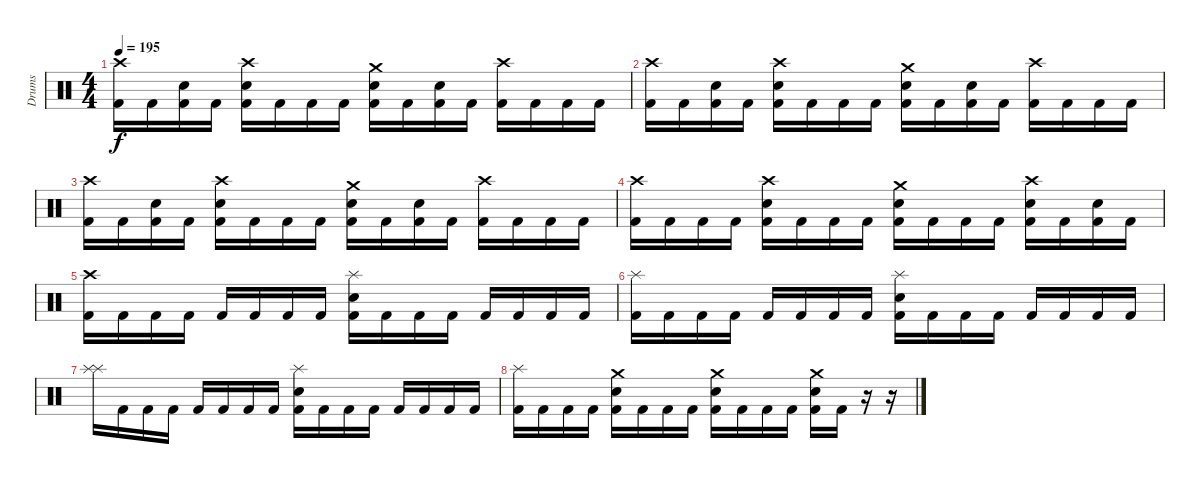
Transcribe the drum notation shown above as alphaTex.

\track ("Drums" "Drums") {instrument percussion}
\staff {score}
\articulation defaults
\ts (4 4)
\tempo 195
\clef neutral
\ks c
("Crash high (hit)" "Kick (hit) 2").16{dy f} "Kick (hit) 2".16 ("Kick (hit) 2" "Electric Snare (hit)").16 "Kick (hit) 2".16 ("Crash high (hit)" "Kick (hit) 2" "Electric Snare (hit)").16 "Kick (hit) 2".16 "Kick (hit) 2".16 "Kick (hit) 2".16 ("Crash medium (hit)" "Kick (hit) 2" "Electric Snare (hit)").16 "Kick (hit) 2".16 ("Kick (hit) 2" "Electric Snare (hit)").16 "Kick (hit) 2".16 ("Crash high (hit)" "Kick (hit) 2").16 "Kick (hit) 2".16 "Kick (hit) 2".16 "Kick (hit) 2".16 |
("Crash high (hit)" "Kick (hit) 2").16 "Kick (hit) 2".16 ("Kick (hit) 2" "Electric Snare (hit)").16 "Kick (hit) 2".16 ("Crash high (hit)" "Kick (hit) 2" "Electric Snare (hit)").16 "Kick (hit) 2".16 "Kick (hit) 2".16 "Kick (hit) 2".16 ("Crash medium (hit)" "Kick (hit) 2" "Electric Snare (hit)").16 "Kick (hit) 2".16 ("Kick (hit) 2" "Electric Snare (hit)").16 "Kick (hit) 2".16 ("Crash high (hit)" "Kick (hit) 2").16 "Kick (hit) 2".16 "Kick (hit) 2".16 "Kick (hit) 2".16 |
("Crash high (hit)" "Kick (hit) 2").16 "Kick (hit) 2".16 ("Kick (hit) 2" "Electric Snare (hit)").16 "Kick (hit) 2".16 ("Crash high (hit)" "Kick (hit) 2" "Electric Snare (hit)").16 "Kick (hit) 2".16 "Kick (hit) 2".16 "Kick (hit) 2".16 ("Crash medium (hit)" "Kick (hit) 2" "Electric Snare (hit)").16 "Kick (hit) 2".16 ("Kick (hit) 2" "Electric Snare (hit)").16 "Kick (hit) 2".16 ("Crash high (hit)" "Kick (hit) 2").16 "Kick (hit) 2".16 "Kick (hit) 2".16 "Kick (hit) 2".16 |
("Crash high (hit)" "Kick (hit) 2").16 "Kick (hit) 2".16 "Kick (hit) 2".16 "Kick (hit) 2".16 ("Crash high (hit)" "Kick (hit) 2" "Electric Snare (hit)").16 "Kick (hit) 2".16 "Kick (hit) 2".16 "Kick (hit) 2".16 ("Crash medium (hit)" "Kick (hit) 2" "Electric Snare (hit)").16 "Kick (hit) 2".16 "Kick (hit) 2".16 "Kick (hit) 2".16 ("Crash high (hit)" "Kick (hit) 2" "Electric Snare (hit)").16 "Kick (hit) 2".16 ("Kick (hit) 2" "Electric Snare (hit)").16 "Kick (hit) 2".16 |
("Crash high (hit)" "Kick (hit) 2").16 "Kick (hit) 2".16 "Kick (hit) 2".16 "Kick (hit) 2".16 "Kick (hit) 2".16 "Kick (hit) 2".16 "Kick (hit) 2".16 "Kick (hit) 2".16 ("Splash (hit)" "Kick (hit) 2" "Electric Snare (hit)").16 "Kick (hit) 2".16 "Kick (hit) 2".16 "Kick (hit) 2".16 "Kick (hit) 2".16 "Kick (hit) 2".16 "Kick (hit) 2".16 "Kick (hit) 2".16 |
("Splash (hit)" "Kick (hit) 2").16 "Kick (hit) 2".16 "Kick (hit) 2".16 "Kick (hit) 2".16 "Kick (hit) 2".16 "Kick (hit) 2".16 "Kick (hit) 2".16 "Kick (hit) 2".16 ("Splash (hit)" "Kick (hit) 2" "Electric Snare (hit)").16 "Kick (hit) 2".16 "Kick (hit) 2".16 "Kick (hit) 2".16 "Kick (hit) 2".16 "Kick (hit) 2".16 "Kick (hit) 2".16 "Kick (hit) 2".16 |
("Splash (hit)" "Splash (hit)").16 "Kick (hit) 2".16 "Kick (hit) 2".16 "Kick (hit) 2".16 "Kick (hit) 2".16 "Kick (hit) 2".16 "Kick (hit) 2".16 "Kick (hit) 2".16 ("Splash (hit)" "Kick (hit) 2" "Electric Snare (hit)").16 "Kick (hit) 2".16 "Kick (hit) 2".16 "Kick (hit) 2".16 "Kick (hit) 2".16 "Kick (hit) 2".16 "Kick (hit) 2".16 "Kick (hit) 2".16 |
("Splash (hit)" "Kick (hit) 2").16 "Kick (hit) 2".16 "Kick (hit) 2".16 "Kick (hit) 2".16 ("Crash medium (hit)" "Kick (hit) 2" "Electric Snare (hit)").16 "Kick (hit) 2".16 "Kick (hit) 2".16 "Kick (hit) 2".16 ("Crash medium (hit)" "Kick (hit) 2" "Electric Snare (hit)").16 "Kick (hit) 2".16 "Kick (hit) 2".16 "Kick (hit) 2".16 ("Crash medium (hit)" "Kick (hit) 2" "Electric Snare (hit)").16 "Kick (hit) 2".16 r.16 r.16
